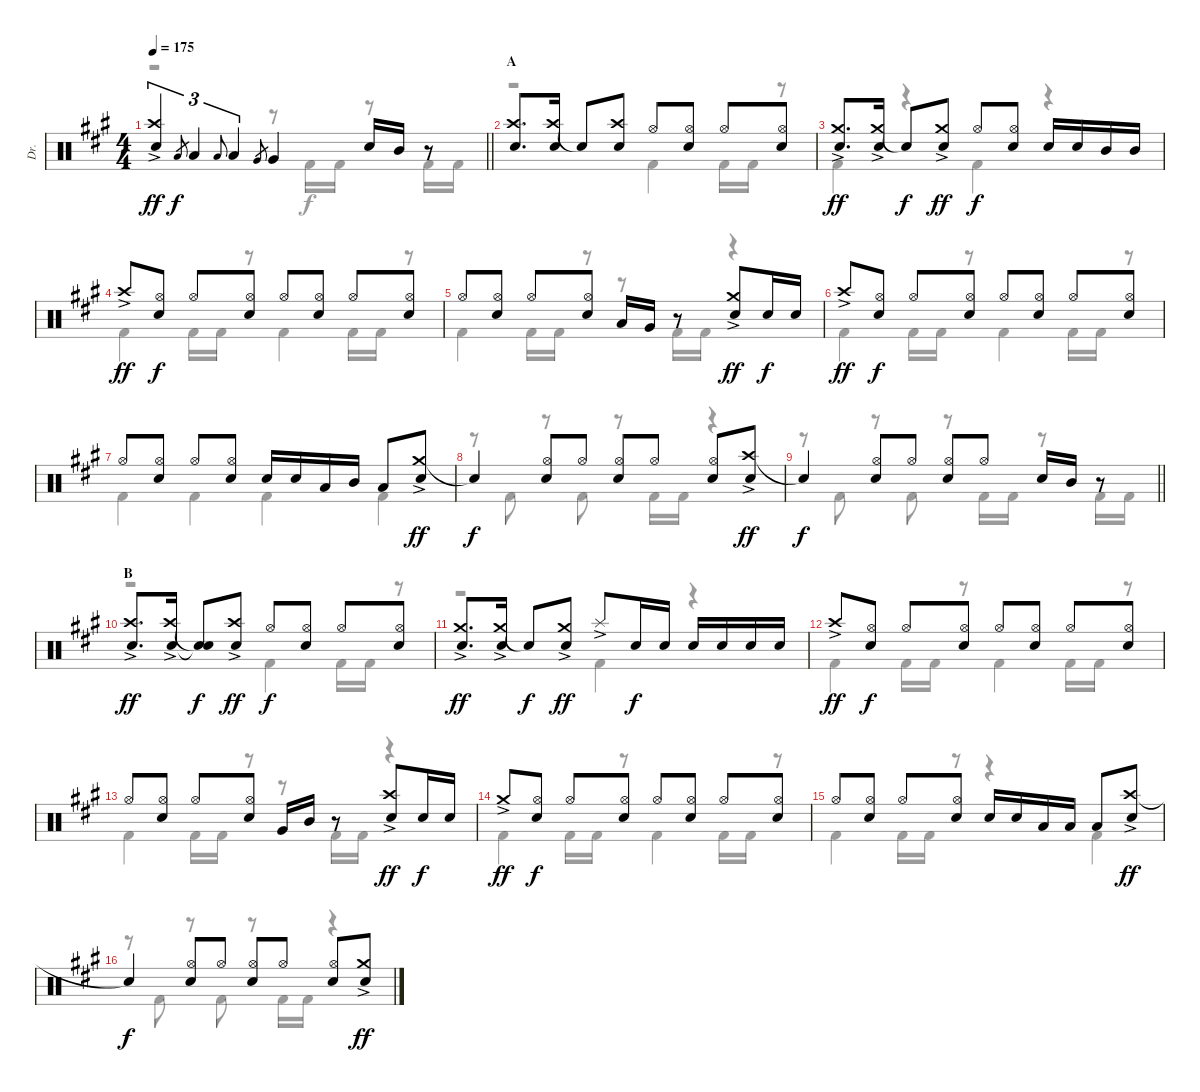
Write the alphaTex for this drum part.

\track ("Dr." "Dr.") {instrument percussion}
\staff {score}
\articulation defaults
\voice
\ts (4 4)
\tempo 175
\clef neutral
\barLineRight lightlight
\ks f#minor
("Crash high (hit)"{ac} "Electric Snare (hit)").4{tu (3 2) dy ff} "Low Tom (hit)".8{gr dy f} "Low Tom (hit)".4{tu (3 2)} "Low Tom (hit)".8{gr onbeat} "Low Tom (hit)".4{tu (3 2)} "Very Low Tom (hit)".8{gr} "Very Low Tom (hit)".4 "Electric Snare (hit)".16 "Mid Tom (hit)".16 r.8 |
\section ("" "A")
("Crash high (hit)" "Electric Snare (hit)").8{d} ("Crash high (hit)" "Electric Snare (hit)").16 "Snare (hit)"{t}.8 ("Crash high (hit)" "Electric Snare (hit)").8 "Hi-Hat (open)".8 ("Hi-Hat (open)" "Electric Snare (hit)").8 "Hi-Hat (open)".8 ("Hi-Hat (open)" "Electric Snare (hit)").8 |
("Crash medium (hit)"{ac} "Electric Snare (hit)").8{d dy ff} ("Crash medium (hit)"{ac} "Electric Snare (hit)").16 "Snare (hit)"{t}.8{dy f} ("Crash medium (hit)"{ac} "Electric Snare (hit)").8{dy ff} "Hi-Hat (open)".8{dy f} ("Hi-Hat (open)" "Electric Snare (hit)").8 "Electric Snare (hit)".16 "Electric Snare (hit)".16 "Mid Tom (hit)".16 "Mid Tom (hit)".16 |
"Crash high (hit)"{ac}.8{dy ff} ("Hi-Hat (open)" "Electric Snare (hit)").8{dy f} "Hi-Hat (open)".8 ("Hi-Hat (open)" "Electric Snare (hit)").8 "Hi-Hat (open)".8 ("Hi-Hat (open)" "Electric Snare (hit)").8 "Hi-Hat (open)".8 ("Hi-Hat (open)" "Electric Snare (hit)").8 |
"Hi-Hat (open)".8 ("Hi-Hat (open)" "Electric Snare (hit)").8 "Hi-Hat (open)".8 ("Hi-Hat (open)" "Electric Snare (hit)").8 "Low Tom (hit)".16 "Very Low Tom (hit)".16 r.8 ("Crash medium (hit)"{ac} "Electric Snare (hit)").8{dy ff} "Electric Snare (hit)".16{dy f} "Electric Snare (hit)".16 |
"Crash high (hit)"{ac}.8{dy ff} ("Hi-Hat (open)" "Electric Snare (hit)").8{dy f} "Hi-Hat (open)".8 ("Hi-Hat (open)" "Electric Snare (hit)").8 "Hi-Hat (open)".8 ("Hi-Hat (open)" "Electric Snare (hit)").8 "Hi-Hat (open)".8 ("Hi-Hat (open)" "Electric Snare (hit)").8 |
"Hi-Hat (open)".8 ("Hi-Hat (open)" "Electric Snare (hit)").8 "Hi-Hat (open)".8 ("Hi-Hat (open)" "Electric Snare (hit)").8 "Electric Snare (hit)".16 "Electric Snare (hit)".16 "Low Tom (hit)".16 "Mid Tom (hit)".16 "Low Tom (hit)".8 ("Crash medium (hit)"{ac} "Electric Snare (hit)").8{dy ff} |
"Snare (hit)"{t}.4{dy f} ("Hi-Hat (open)" "Electric Snare (hit)").8 "Hi-Hat (open)".8 ("Hi-Hat (open)" "Electric Snare (hit)").8 "Hi-Hat (open)".8 ("Hi-Hat (open)" "Electric Snare (hit)").8 ("Crash high (hit)"{ac} "Electric Snare (hit)").8{dy ff} |
\barLineRight lightlight "Snare (hit)"{t}.4{dy f}
("Hi-Hat (open)" "Electric Snare (hit)").8 "Hi-Hat (open)".8 ("Hi-Hat (open)" "Electric Snare (hit)").8 "Hi-Hat (open)".8 "Electric Snare (hit)".16 "Mid Tom (hit)".16 r.8 |
\section ("" "B")
("Crash high (hit)"{ac} "Electric Snare (hit)").8{d dy ff} ("Crash high (hit)"{ac} "Electric Snare (hit)").16 ("Snare (hit)"{t} "Snare (hit)"{t}).8{dy f} ("Crash high (hit)"{ac} "Electric Snare (hit)").8{dy ff} "Hi-Hat (open)".8{dy f} ("Hi-Hat (open)" "Electric Snare (hit)").8 "Hi-Hat (open)".8 ("Hi-Hat (open)" "Electric Snare (hit)").8 |
("Crash medium (hit)"{ac} "Electric Snare (hit)").8{d dy ff} ("Crash medium (hit)"{ac} "Electric Snare (hit)").16 "Snare (hit)"{t}.8{dy f} ("Crash medium (hit)"{ac} "Electric Snare (hit)").8{dy ff} "Splash (hit)"{ac}.8 "Electric Snare (hit)".16{dy f} "Electric Snare (hit)".16 "Electric Snare (hit)".16 "Electric Snare (hit)".16 "Electric Snare (hit)".16 "Electric Snare (hit)".16 |
"Crash high (hit)"{ac}.8{dy ff} ("Hi-Hat (open)" "Electric Snare (hit)").8{dy f} "Hi-Hat (open)".8 ("Hi-Hat (open)" "Electric Snare (hit)").8 "Hi-Hat (open)".8 ("Hi-Hat (open)" "Electric Snare (hit)").8 "Hi-Hat (open)".8 ("Hi-Hat (open)" "Electric Snare (hit)").8 |
"Hi-Hat (open)".8 ("Hi-Hat (open)" "Electric Snare (hit)").8 "Hi-Hat (open)".8 ("Hi-Hat (open)" "Electric Snare (hit)").8 "Very Low Tom (hit)".16 "Mid Tom (hit)".16 r.8 ("Crash high (hit)"{ac} "Electric Snare (hit)").8{dy ff} "Electric Snare (hit)".16{dy f} "Electric Snare (hit)".16 |
"Crash medium (hit)"{ac}.8{dy ff} ("Hi-Hat (open)" "Electric Snare (hit)").8{dy f} "Hi-Hat (open)".8 ("Hi-Hat (open)" "Electric Snare (hit)").8 "Hi-Hat (open)".8 ("Hi-Hat (open)" "Electric Snare (hit)").8 "Hi-Hat (open)".8 ("Hi-Hat (open)" "Electric Snare (hit)").8 |
"Hi-Hat (open)".8 ("Hi-Hat (open)" "Electric Snare (hit)").8 "Hi-Hat (open)".8 ("Hi-Hat (open)" "Electric Snare (hit)").8 "Electric Snare (hit)".16 "Electric Snare (hit)".16 "Low Tom (hit)".16 "Low Tom (hit)".16 "Low Tom (hit)".8 ("Crash high (hit)"{ac} "Electric Snare (hit)").8{dy ff} |
"Snare (hit)"{t}.4{dy f} ("Hi-Hat (open)" "Electric Snare (hit)").8 "Hi-Hat (open)".8 ("Hi-Hat (open)" "Electric Snare (hit)").8 "Hi-Hat (open)".8 ("Hi-Hat (open)" "Electric Snare (hit)").8 ("Crash medium (hit)"{ac} "Electric Snare (hit)").8{dy ff}
\voice
\clef neutral
\ottava regular
\simile none
\barLineRight lightlight
\ks f#minor
r.2{dy f} r.8 "Kick (hit) 2".16 "Kick (hit) 2".16 r.8 "Kick (hit) 2".16 "Kick (hit) 2".16 |
r.2 "Kick (hit) 2".4 "Kick (hit) 2".16 "Kick (hit) 2".16 r.8 |
"Kick (hit) 2".4 r.4 "Kick (hit) 2".4 r.4 |
"Kick (hit) 2".4 "Kick (hit) 2".16 "Kick (hit) 2".16 r.8 "Kick (hit) 2".4 "Kick (hit) 2".16 "Kick (hit) 2".16 r.8 |
"Kick (hit) 2".4 "Kick (hit) 2".16 "Kick (hit) 2".16 r.8 r.8 "Kick (hit) 2".16 "Kick (hit) 2".16 r.4 |
"Kick (hit) 2".4 "Kick (hit) 2".16 "Kick (hit) 2".16 r.8 "Kick (hit) 2".4 "Kick (hit) 2".16 "Kick (hit) 2".16 r.8 |
"Kick (hit) 2".4 "Kick (hit) 2".4 "Kick (hit) 2".4 "Kick (hit) 2".4 |
r.8 "Kick (hit) 2".8 r.8 "Kick (hit) 2".8 r.8 "Kick (hit) 2".16 "Kick (hit) 2".16 r.4 |
\barLineRight lightlight
r.8 "Kick (hit) 2".8 r.8 "Kick (hit) 2".8 r.8 "Kick (hit) 2".16 "Kick (hit) 2".16 r.8 "Kick (hit) 2".16 "Kick (hit) 2".16 |
r.2 "Kick (hit) 2".4 "Kick (hit) 2".16 "Kick (hit) 2".16 r.8 |
r.2 "Kick (hit) 2".4 r.4 |
"Kick (hit) 2".4 "Kick (hit) 2".16 "Kick (hit) 2".16 r.8 "Kick (hit) 2".4 "Kick (hit) 2".16 "Kick (hit) 2".16 r.8 |
"Kick (hit) 2".4 "Kick (hit) 2".16 "Kick (hit) 2".16 r.8 r.8 "Kick (hit) 2".16 "Kick (hit) 2".16 r.4 |
"Kick (hit) 2".4 "Kick (hit) 2".16 "Kick (hit) 2".16 r.8 "Kick (hit) 2".4 "Kick (hit) 2".16 "Kick (hit) 2".16 r.8 |
"Kick (hit) 2".4 "Kick (hit) 2".16 "Kick (hit) 2".16 r.8 r.4 "Kick (hit) 2".4 |
r.8 "Kick (hit) 2".8 r.8 "Kick (hit) 2".8 r.8 "Kick (hit) 2".16 "Kick (hit) 2".16 r.4
